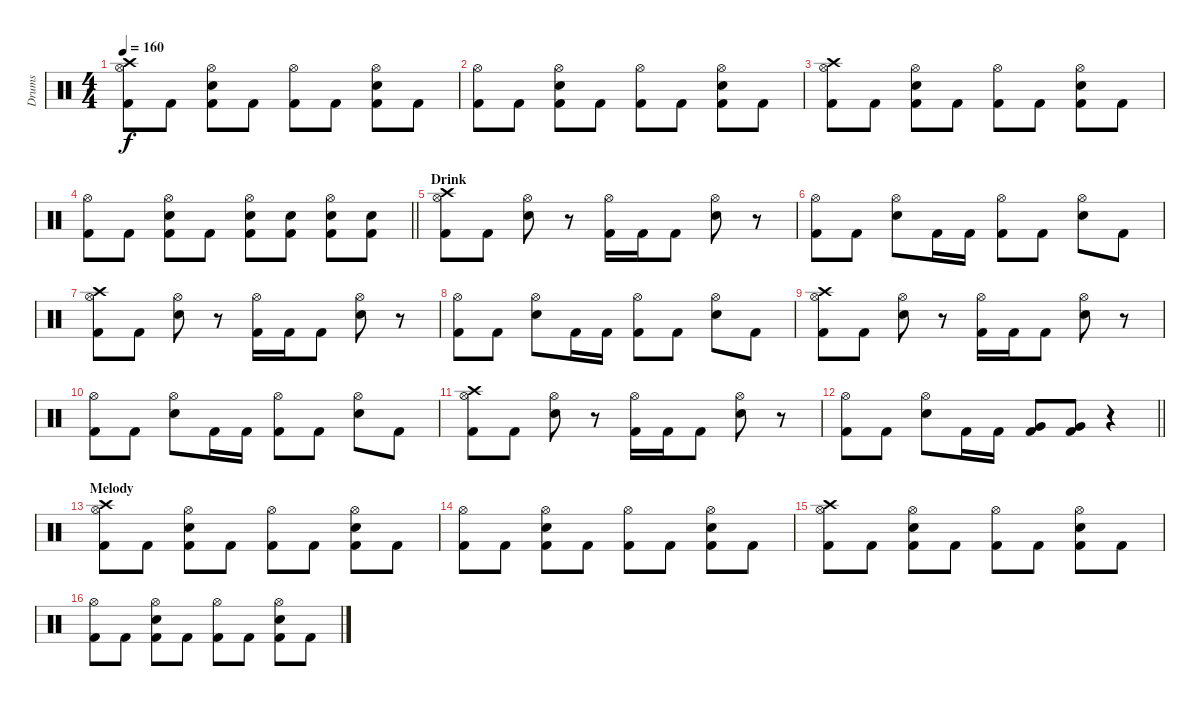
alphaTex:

\track ("Drums" "Drums") {instrument percussion}
\staff {score}
\articulation defaults
\ts (4 4)
\tempo 160
\clef neutral
\ks c
("Crash high (hit)" "Hi-Hat (open)" "Kick (hit) 2").8{dy f} "Kick (hit) 2".8 ("Hi-Hat (open)" "Snare (hit) 2" "Kick (hit) 2").8 "Kick (hit) 2".8 ("Hi-Hat (open)" "Kick (hit) 2").8 "Kick (hit) 2".8 ("Hi-Hat (open)" "Snare (hit) 2" "Kick (hit) 2").8 "Kick (hit) 2".8 |
("Hi-Hat (open)" "Kick (hit) 2").8 "Kick (hit) 2".8 ("Hi-Hat (open)" "Snare (hit) 2" "Kick (hit) 2").8 "Kick (hit) 2".8 ("Hi-Hat (open)" "Kick (hit) 2").8 "Kick (hit) 2".8 ("Hi-Hat (open)" "Snare (hit) 2" "Kick (hit) 2").8 "Kick (hit) 2".8 |
("Crash high (hit)" "Hi-Hat (open)" "Kick (hit) 2").8 "Kick (hit) 2".8 ("Hi-Hat (open)" "Snare (hit) 2" "Kick (hit) 2").8 "Kick (hit) 2".8 ("Hi-Hat (open)" "Kick (hit) 2").8 "Kick (hit) 2".8 ("Hi-Hat (open)" "Snare (hit) 2" "Kick (hit) 2").8 "Kick (hit) 2".8 |
\barLineRight lightlight
("Hi-Hat (open)" "Kick (hit) 2").8 "Kick (hit) 2".8 ("Hi-Hat (open)" "Snare (hit) 2" "Kick (hit) 2").8 "Kick (hit) 2".8 ("Hi-Hat (open)" "Snare (hit) 2" "Kick (hit) 2").8 ("Snare (hit) 2" "Kick (hit) 2").8 ("Hi-Hat (open)" "Snare (hit) 2" "Kick (hit) 2").8 ("Snare (hit) 2" "Kick (hit) 2").8 |
\section ("" "Drink")
("Crash high (hit)" "Hi-Hat (open)" "Kick (hit) 2").8 "Kick (hit) 2".8 ("Hi-Hat (open)" "Snare (hit) 2").8 r.8 ("Hi-Hat (open)" "Kick (hit) 2").16 "Kick (hit) 2".16 "Kick (hit) 2".8 ("Hi-Hat (open)" "Snare (hit) 2").8 r.8 |
("Hi-Hat (open)" "Kick (hit) 2").8 "Kick (hit) 2".8 ("Hi-Hat (open)" "Snare (hit) 2").8 "Kick (hit) 2".16 "Kick (hit) 2".16 ("Hi-Hat (open)" "Kick (hit) 2").8 "Kick (hit) 2".8 ("Hi-Hat (open)" "Snare (hit) 2").8 "Kick (hit) 2".8 |
("Crash high (hit)" "Hi-Hat (open)" "Kick (hit) 2").8 "Kick (hit) 2".8 ("Hi-Hat (open)" "Snare (hit) 2").8 r.8 ("Hi-Hat (open)" "Kick (hit) 2").16 "Kick (hit) 2".16 "Kick (hit) 2".8 ("Hi-Hat (open)" "Snare (hit) 2").8 r.8 |
("Hi-Hat (open)" "Kick (hit) 2").8 "Kick (hit) 2".8 ("Hi-Hat (open)" "Snare (hit) 2").8 "Kick (hit) 2".16 "Kick (hit) 2".16 ("Hi-Hat (open)" "Kick (hit) 2").8 "Kick (hit) 2".8 ("Hi-Hat (open)" "Snare (hit) 2").8 "Kick (hit) 2".8 |
("Crash high (hit)" "Hi-Hat (open)" "Kick (hit) 2").8 "Kick (hit) 2".8 ("Hi-Hat (open)" "Snare (hit) 2").8 r.8 ("Hi-Hat (open)" "Kick (hit) 2").16 "Kick (hit) 2".16 "Kick (hit) 2".8 ("Hi-Hat (open)" "Snare (hit) 2").8 r.8 |
("Hi-Hat (open)" "Kick (hit) 2").8 "Kick (hit) 2".8 ("Hi-Hat (open)" "Snare (hit) 2").8 "Kick (hit) 2".16 "Kick (hit) 2".16 ("Hi-Hat (open)" "Kick (hit) 2").8 "Kick (hit) 2".8 ("Hi-Hat (open)" "Snare (hit) 2").8 "Kick (hit) 2".8 |
("Crash high (hit)" "Hi-Hat (open)" "Kick (hit) 2").8 "Kick (hit) 2".8 ("Hi-Hat (open)" "Snare (hit) 2").8 r.8 ("Hi-Hat (open)" "Kick (hit) 2").16 "Kick (hit) 2".16 "Kick (hit) 2".8 ("Hi-Hat (open)" "Snare (hit) 2").8 r.8 |
\barLineRight lightlight
("Hi-Hat (open)" "Kick (hit) 2").8 "Kick (hit) 2".8 ("Hi-Hat (open)" "Snare (hit) 2").8 "Kick (hit) 2".16 "Kick (hit) 2".16 ("Very Low Tom (hit)" "Kick (hit) 2").8 ("Very Low Tom (hit)" "Kick (hit) 2").8 r.4 |
\section ("" "Melody")
("Crash high (hit)" "Hi-Hat (open)" "Kick (hit) 2").8 "Kick (hit) 2".8 ("Hi-Hat (open)" "Snare (hit) 2" "Kick (hit) 2").8 "Kick (hit) 2".8 ("Hi-Hat (open)" "Kick (hit) 2").8 "Kick (hit) 2".8 ("Hi-Hat (open)" "Snare (hit) 2" "Kick (hit) 2").8 "Kick (hit) 2".8 |
("Hi-Hat (open)" "Kick (hit) 2").8 "Kick (hit) 2".8 ("Hi-Hat (open)" "Snare (hit) 2" "Kick (hit) 2").8 "Kick (hit) 2".8 ("Hi-Hat (open)" "Kick (hit) 2").8 "Kick (hit) 2".8 ("Hi-Hat (open)" "Snare (hit) 2" "Kick (hit) 2").8 "Kick (hit) 2".8 |
("Crash high (hit)" "Hi-Hat (open)" "Kick (hit) 2").8 "Kick (hit) 2".8 ("Hi-Hat (open)" "Snare (hit) 2" "Kick (hit) 2").8 "Kick (hit) 2".8 ("Hi-Hat (open)" "Kick (hit) 2").8 "Kick (hit) 2".8 ("Hi-Hat (open)" "Snare (hit) 2" "Kick (hit) 2").8 "Kick (hit) 2".8 |
("Hi-Hat (open)" "Kick (hit) 2").8 "Kick (hit) 2".8 ("Hi-Hat (open)" "Snare (hit) 2" "Kick (hit) 2").8 "Kick (hit) 2".8 ("Hi-Hat (open)" "Kick (hit) 2").8 "Kick (hit) 2".8 ("Hi-Hat (open)" "Snare (hit) 2" "Kick (hit) 2").8 "Kick (hit) 2".8
